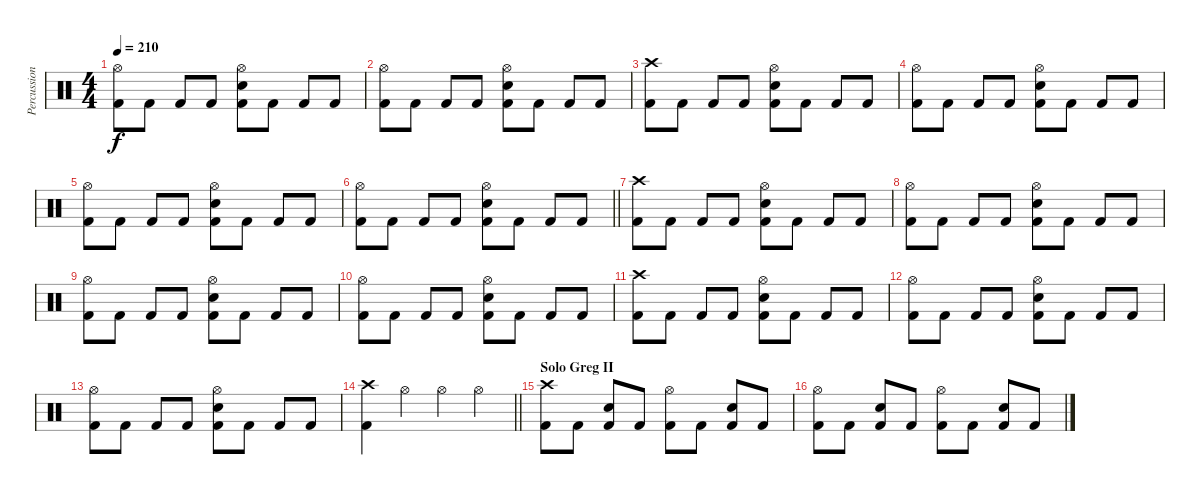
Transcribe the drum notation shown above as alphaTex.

\track ("Percussion" "Percussion") {instrument percussion}
\staff {score}
\articulation defaults
\ts (4 4)
\tempo 210
\clef neutral
\ks c
("Hi-Hat (open)" "Kick (hit) 2").8{dy f} "Kick (hit) 2".8 "Kick (hit) 2".8 "Kick (hit) 2".8 ("Hi-Hat (open)" "Snare (hit) 2" "Kick (hit) 2").8 "Kick (hit) 2".8 "Kick (hit) 2".8 "Kick (hit) 2".8 |
("Hi-Hat (open)" "Kick (hit) 2").8 "Kick (hit) 2".8 "Kick (hit) 2".8 "Kick (hit) 2".8 ("Hi-Hat (open)" "Snare (hit) 2" "Kick (hit) 2").8 "Kick (hit) 2".8 "Kick (hit) 2".8 "Kick (hit) 2".8 |
("Crash high (hit)" "Kick (hit) 2").8 "Kick (hit) 2".8 "Kick (hit) 2".8 "Kick (hit) 2".8 ("Hi-Hat (open)" "Snare (hit) 2" "Kick (hit) 2").8 "Kick (hit) 2".8 "Kick (hit) 2".8 "Kick (hit) 2".8 |
("Hi-Hat (open)" "Kick (hit) 2").8 "Kick (hit) 2".8 "Kick (hit) 2".8 "Kick (hit) 2".8 ("Hi-Hat (open)" "Snare (hit) 2" "Kick (hit) 2").8 "Kick (hit) 2".8 "Kick (hit) 2".8 "Kick (hit) 2".8 |
("Hi-Hat (open)" "Kick (hit) 2").8 "Kick (hit) 2".8 "Kick (hit) 2".8 "Kick (hit) 2".8 ("Hi-Hat (open)" "Snare (hit) 2" "Kick (hit) 2").8 "Kick (hit) 2".8 "Kick (hit) 2".8 "Kick (hit) 2".8 |
\barLineRight lightlight
("Hi-Hat (open)" "Kick (hit) 2").8 "Kick (hit) 2".8 "Kick (hit) 2".8 "Kick (hit) 2".8 ("Hi-Hat (open)" "Snare (hit) 2" "Kick (hit) 2").8 "Kick (hit) 2".8 "Kick (hit) 2".8 "Kick (hit) 2".8 |
("Crash high (hit)" "Kick (hit) 2").8 "Kick (hit) 2".8 "Kick (hit) 2".8 "Kick (hit) 2".8 ("Hi-Hat (open)" "Snare (hit) 2" "Kick (hit) 2").8 "Kick (hit) 2".8 "Kick (hit) 2".8 "Kick (hit) 2".8 |
("Hi-Hat (open)" "Kick (hit) 2").8 "Kick (hit) 2".8 "Kick (hit) 2".8 "Kick (hit) 2".8 ("Hi-Hat (open)" "Snare (hit) 2" "Kick (hit) 2").8 "Kick (hit) 2".8 "Kick (hit) 2".8 "Kick (hit) 2".8 |
("Hi-Hat (open)" "Kick (hit) 2").8 "Kick (hit) 2".8 "Kick (hit) 2".8 "Kick (hit) 2".8 ("Hi-Hat (open)" "Snare (hit) 2" "Kick (hit) 2").8 "Kick (hit) 2".8 "Kick (hit) 2".8 "Kick (hit) 2".8 |
("Hi-Hat (open)" "Kick (hit) 2").8 "Kick (hit) 2".8 "Kick (hit) 2".8 "Kick (hit) 2".8 ("Hi-Hat (open)" "Snare (hit) 2" "Kick (hit) 2").8 "Kick (hit) 2".8 "Kick (hit) 2".8 "Kick (hit) 2".8 |
("Crash high (hit)" "Kick (hit) 2").8 "Kick (hit) 2".8 "Kick (hit) 2".8 "Kick (hit) 2".8 ("Hi-Hat (open)" "Snare (hit) 2" "Kick (hit) 2").8 "Kick (hit) 2".8 "Kick (hit) 2".8 "Kick (hit) 2".8 |
("Hi-Hat (open)" "Kick (hit) 2").8 "Kick (hit) 2".8 "Kick (hit) 2".8 "Kick (hit) 2".8 ("Hi-Hat (open)" "Snare (hit) 2" "Kick (hit) 2").8 "Kick (hit) 2".8 "Kick (hit) 2".8 "Kick (hit) 2".8 |
("Hi-Hat (open)" "Kick (hit) 2").8 "Kick (hit) 2".8 "Kick (hit) 2".8 "Kick (hit) 2".8 ("Hi-Hat (open)" "Snare (hit) 2" "Kick (hit) 2").8 "Kick (hit) 2".8 "Kick (hit) 2".8 "Kick (hit) 2".8 |
\barLineRight lightlight
("Crash high (hit)" "Kick (hit) 2").4 "Hi-Hat (open)".4 "Hi-Hat (open)".4 "Hi-Hat (open)".4 |
\section ("" "Solo Greg II")
("Crash high (hit)" "Kick (hit) 2").8 "Kick (hit) 2".8 ("Snare (hit) 2" "Kick (hit) 2").8 "Kick (hit) 2".8 ("Hi-Hat (open)" "Kick (hit) 2").8 "Kick (hit) 2".8 ("Snare (hit) 2" "Kick (hit) 2").8 "Kick (hit) 2".8 |
("Hi-Hat (open)" "Kick (hit) 2").8 "Kick (hit) 2".8 ("Snare (hit) 2" "Kick (hit) 2").8 "Kick (hit) 2".8 ("Hi-Hat (open)" "Kick (hit) 2").8 "Kick (hit) 2".8 ("Snare (hit) 2" "Kick (hit) 2").8 "Kick (hit) 2".8
